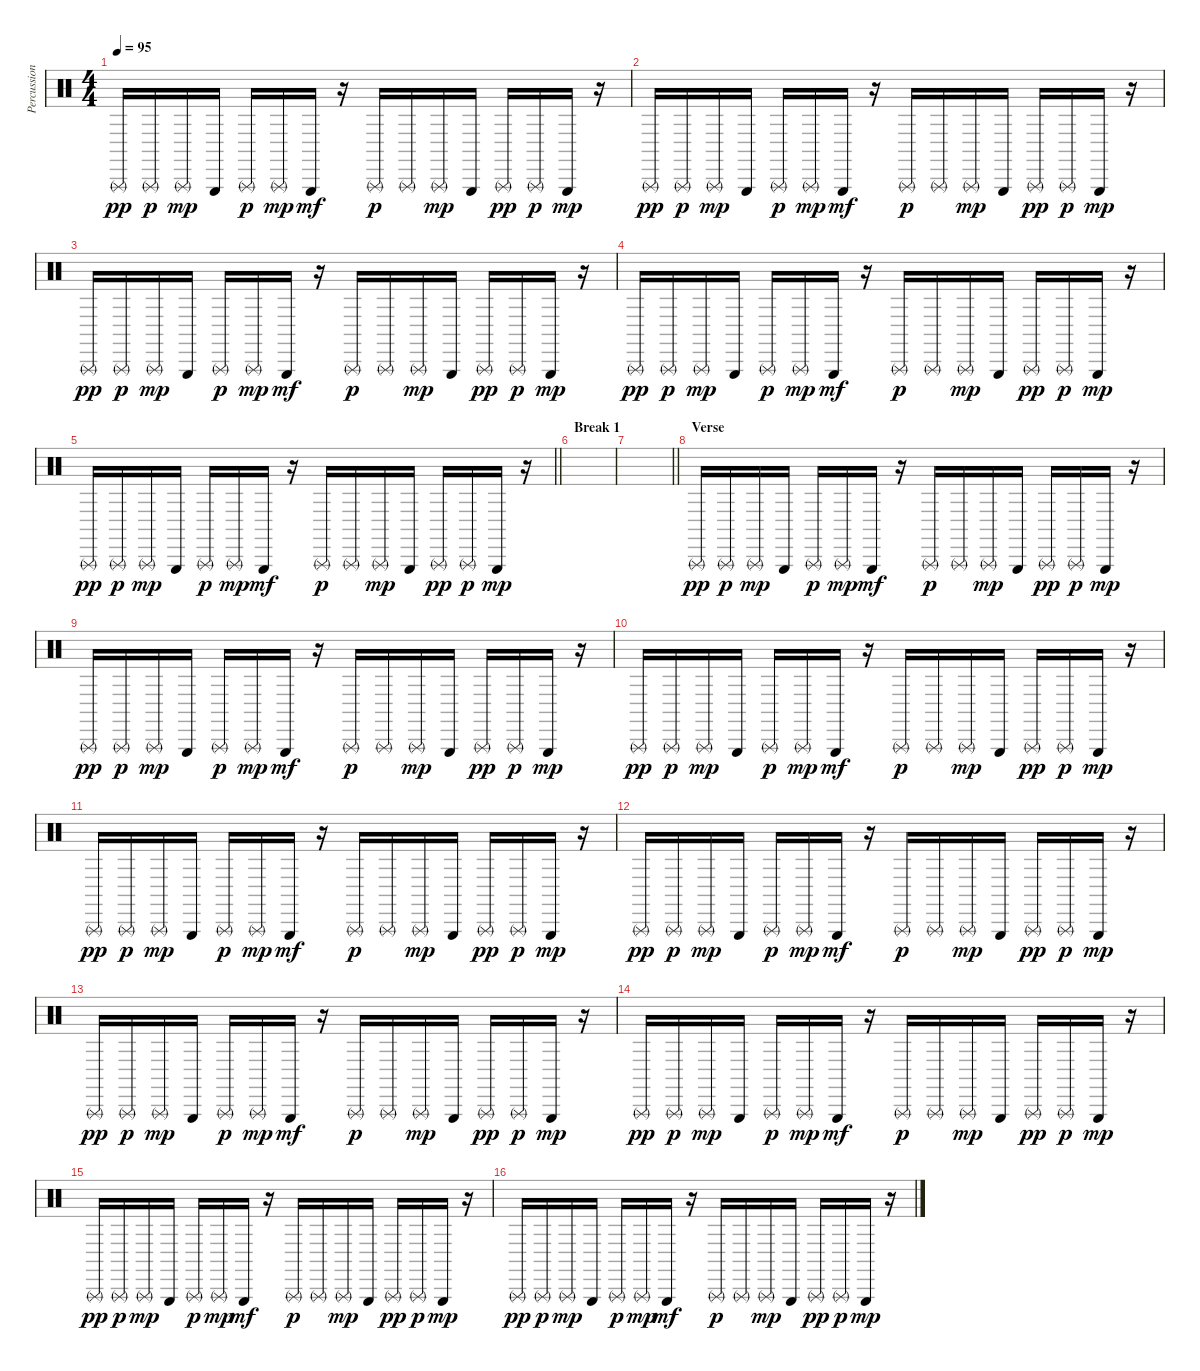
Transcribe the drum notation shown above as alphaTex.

\track ("Percussions" "Percussion") {instrument percussion}
\staff {score}
\articulation defaults
\ts (4 4)
\tempo 95
\clef neutral
\ks c "Triangle (rnute)".16{dy pp} "Triangle (rnute)".16{dy p} "Triangle (rnute)".16{dy mp} "Triangle (hit)".16 "Triangle (rnute)".16{dy p} "Triangle (rnute)".16{dy mp} "Triangle (hit)".16{dy mf}
r.16 "Triangle (rnute)".16{dy p} "Triangle (rnute)".16 "Triangle (rnute)".16{dy mp} "Triangle (hit)".16 "Triangle (rnute)".16{dy pp} "Triangle (rnute)".16{dy p} "Triangle (hit)".16{dy mp} r.16 |
"Triangle (rnute)".16{dy pp} "Triangle (rnute)".16{dy p} "Triangle (rnute)".16{dy mp} "Triangle (hit)".16 "Triangle (rnute)".16{dy p} "Triangle (rnute)".16{dy mp} "Triangle (hit)".16{dy mf} r.16 "Triangle (rnute)".16{dy p} "Triangle (rnute)".16 "Triangle (rnute)".16{dy mp} "Triangle (hit)".16 "Triangle (rnute)".16{dy pp} "Triangle (rnute)".16{dy p} "Triangle (hit)".16{dy mp} r.16 |
"Triangle (rnute)".16{dy pp} "Triangle (rnute)".16{dy p} "Triangle (rnute)".16{dy mp} "Triangle (hit)".16 "Triangle (rnute)".16{dy p} "Triangle (rnute)".16{dy mp} "Triangle (hit)".16{dy mf} r.16 "Triangle (rnute)".16{dy p} "Triangle (rnute)".16 "Triangle (rnute)".16{dy mp} "Triangle (hit)".16 "Triangle (rnute)".16{dy pp} "Triangle (rnute)".16{dy p} "Triangle (hit)".16{dy mp} r.16 |
"Triangle (rnute)".16{dy pp} "Triangle (rnute)".16{dy p} "Triangle (rnute)".16{dy mp} "Triangle (hit)".16 "Triangle (rnute)".16{dy p} "Triangle (rnute)".16{dy mp} "Triangle (hit)".16{dy mf} r.16 "Triangle (rnute)".16{dy p} "Triangle (rnute)".16 "Triangle (rnute)".16{dy mp} "Triangle (hit)".16 "Triangle (rnute)".16{dy pp} "Triangle (rnute)".16{dy p} "Triangle (hit)".16{dy mp} r.16 |
\barLineRight lightlight "Triangle (rnute)".16{dy pp} "Triangle (rnute)".16{dy p} "Triangle (rnute)".16{dy mp} "Triangle (hit)".16 "Triangle (rnute)".16{dy p} "Triangle (rnute)".16{dy mp} "Triangle (hit)".16{dy mf}
r.16 "Triangle (rnute)".16{dy p} "Triangle (rnute)".16 "Triangle (rnute)".16{dy mp} "Triangle (hit)".16 "Triangle (rnute)".16{dy pp} "Triangle (rnute)".16{dy p} "Triangle (hit)".16{dy mp} r.16 |
\section ("" "Break 1")
|
\barLineRight lightlight
|
\section ("" "Verse")
"Triangle (rnute)".16{dy pp} "Triangle (rnute)".16{dy p} "Triangle (rnute)".16{dy mp} "Triangle (hit)".16 "Triangle (rnute)".16{dy p} "Triangle (rnute)".16{dy mp} "Triangle (hit)".16{dy mf} r.16 "Triangle (rnute)".16{dy p} "Triangle (rnute)".16 "Triangle (rnute)".16{dy mp} "Triangle (hit)".16 "Triangle (rnute)".16{dy pp} "Triangle (rnute)".16{dy p} "Triangle (hit)".16{dy mp} r.16 |
"Triangle (rnute)".16{dy pp} "Triangle (rnute)".16{dy p} "Triangle (rnute)".16{dy mp} "Triangle (hit)".16 "Triangle (rnute)".16{dy p} "Triangle (rnute)".16{dy mp} "Triangle (hit)".16{dy mf} r.16 "Triangle (rnute)".16{dy p} "Triangle (rnute)".16 "Triangle (rnute)".16{dy mp} "Triangle (hit)".16 "Triangle (rnute)".16{dy pp} "Triangle (rnute)".16{dy p} "Triangle (hit)".16{dy mp} r.16 |
"Triangle (rnute)".16{dy pp} "Triangle (rnute)".16{dy p} "Triangle (rnute)".16{dy mp} "Triangle (hit)".16 "Triangle (rnute)".16{dy p} "Triangle (rnute)".16{dy mp} "Triangle (hit)".16{dy mf} r.16 "Triangle (rnute)".16{dy p} "Triangle (rnute)".16 "Triangle (rnute)".16{dy mp} "Triangle (hit)".16 "Triangle (rnute)".16{dy pp} "Triangle (rnute)".16{dy p} "Triangle (hit)".16{dy mp} r.16 |
"Triangle (rnute)".16{dy pp} "Triangle (rnute)".16{dy p} "Triangle (rnute)".16{dy mp} "Triangle (hit)".16 "Triangle (rnute)".16{dy p} "Triangle (rnute)".16{dy mp} "Triangle (hit)".16{dy mf} r.16 "Triangle (rnute)".16{dy p} "Triangle (rnute)".16 "Triangle (rnute)".16{dy mp} "Triangle (hit)".16 "Triangle (rnute)".16{dy pp} "Triangle (rnute)".16{dy p} "Triangle (hit)".16{dy mp} r.16 |
"Triangle (rnute)".16{dy pp} "Triangle (rnute)".16{dy p} "Triangle (rnute)".16{dy mp} "Triangle (hit)".16 "Triangle (rnute)".16{dy p} "Triangle (rnute)".16{dy mp} "Triangle (hit)".16{dy mf} r.16 "Triangle (rnute)".16{dy p} "Triangle (rnute)".16 "Triangle (rnute)".16{dy mp} "Triangle (hit)".16 "Triangle (rnute)".16{dy pp} "Triangle (rnute)".16{dy p} "Triangle (hit)".16{dy mp} r.16 |
"Triangle (rnute)".16{dy pp} "Triangle (rnute)".16{dy p} "Triangle (rnute)".16{dy mp} "Triangle (hit)".16 "Triangle (rnute)".16{dy p} "Triangle (rnute)".16{dy mp} "Triangle (hit)".16{dy mf} r.16 "Triangle (rnute)".16{dy p} "Triangle (rnute)".16 "Triangle (rnute)".16{dy mp} "Triangle (hit)".16 "Triangle (rnute)".16{dy pp} "Triangle (rnute)".16{dy p} "Triangle (hit)".16{dy mp} r.16 |
"Triangle (rnute)".16{dy pp} "Triangle (rnute)".16{dy p} "Triangle (rnute)".16{dy mp} "Triangle (hit)".16 "Triangle (rnute)".16{dy p} "Triangle (rnute)".16{dy mp} "Triangle (hit)".16{dy mf} r.16 "Triangle (rnute)".16{dy p} "Triangle (rnute)".16 "Triangle (rnute)".16{dy mp} "Triangle (hit)".16 "Triangle (rnute)".16{dy pp} "Triangle (rnute)".16{dy p} "Triangle (hit)".16{dy mp} r.16 |
"Triangle (rnute)".16{dy pp} "Triangle (rnute)".16{dy p} "Triangle (rnute)".16{dy mp} "Triangle (hit)".16 "Triangle (rnute)".16{dy p} "Triangle (rnute)".16{dy mp} "Triangle (hit)".16{dy mf} r.16 "Triangle (rnute)".16{dy p} "Triangle (rnute)".16 "Triangle (rnute)".16{dy mp} "Triangle (hit)".16 "Triangle (rnute)".16{dy pp} "Triangle (rnute)".16{dy p} "Triangle (hit)".16{dy mp} r.16 |
"Triangle (rnute)".16{dy pp} "Triangle (rnute)".16{dy p} "Triangle (rnute)".16{dy mp} "Triangle (hit)".16 "Triangle (rnute)".16{dy p} "Triangle (rnute)".16{dy mp} "Triangle (hit)".16{dy mf} r.16 "Triangle (rnute)".16{dy p} "Triangle (rnute)".16 "Triangle (rnute)".16{dy mp} "Triangle (hit)".16 "Triangle (rnute)".16{dy pp} "Triangle (rnute)".16{dy p} "Triangle (hit)".16{dy mp} r.16
